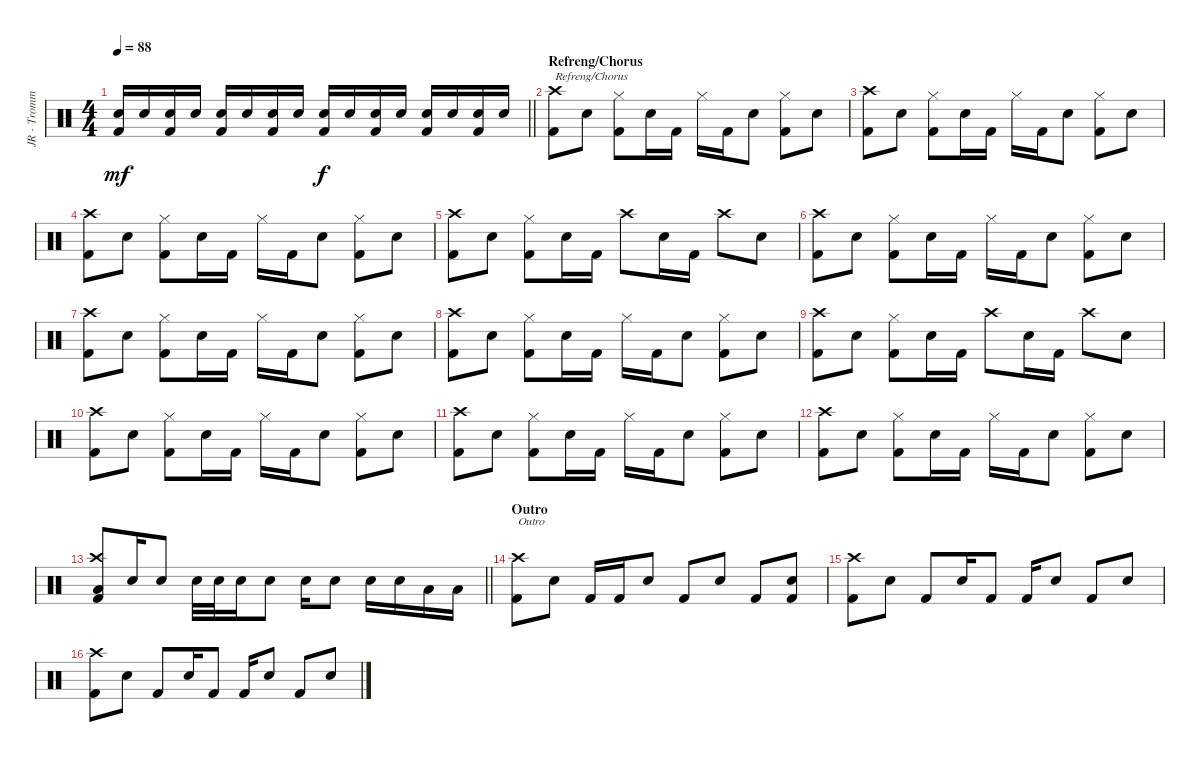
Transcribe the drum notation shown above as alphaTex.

\track ("JR - Trommesett" "JR - Tromm") {instrument percussion}
\staff {score}
\articulation defaults
\ts (4 4)
\tempo 88
\clef neutral
\barLineRight lightlight
\ks c
("Electric Snare (hit)" "Kick (hit) 2").16{dy mf} "Electric Snare (hit)".16 ("Electric Snare (hit)" "Kick (hit) 2").16 "Electric Snare (hit)".16 ("Electric Snare (hit)" "Kick (hit) 2").16 "Electric Snare (hit)".16 ("Electric Snare (hit)" "Kick (hit) 2").16 "Electric Snare (hit)".16 ("Electric Snare (hit)" "Kick (hit) 2").16{dy f} "Electric Snare (hit)".16 ("Electric Snare (hit)" "Kick (hit) 2").16 "Electric Snare (hit)".16 ("Electric Snare (hit)" "Kick (hit) 2").16 "Electric Snare (hit)".16 ("Electric Snare (hit)" "Kick (hit) 2").16 "Electric Snare (hit)".16 |
\section ("" "Refreng/Chorus")
("Crash high (hit)" "Kick (hit) 2").8{txt "Refreng/Chorus"} "Electric Snare (hit)".8 ("Hi-Hat (closed)" "Kick (hit) 2").8 "Electric Snare (hit)".16 "Kick (hit) 2".16 "Hi-Hat (closed)".16 "Kick (hit) 2".16 "Electric Snare (hit)".8 ("Hi-Hat (closed)" "Kick (hit) 2").8 "Electric Snare (hit)".8 |
("Crash high (hit)" "Kick (hit) 2").8 "Electric Snare (hit)".8 ("Hi-Hat (closed)" "Kick (hit) 2").8 "Electric Snare (hit)".16 "Kick (hit) 2".16 "Hi-Hat (closed)".16 "Kick (hit) 2".16 "Electric Snare (hit)".8 ("Hi-Hat (closed)" "Kick (hit) 2").8 "Electric Snare (hit)".8 |
("Crash high (hit)" "Kick (hit) 2").8 "Electric Snare (hit)".8 ("Hi-Hat (closed)" "Kick (hit) 2").8 "Electric Snare (hit)".16 "Kick (hit) 2".16 "Hi-Hat (closed)".16 "Kick (hit) 2".16 "Electric Snare (hit)".8 ("Hi-Hat (closed)" "Kick (hit) 2").8 "Electric Snare (hit)".8 |
("Crash high (hit)" "Kick (hit) 2").8 "Electric Snare (hit)".8 ("Hi-Hat (closed)" "Kick (hit) 2").8 "Electric Snare (hit)".16 "Kick (hit) 2".16 "Crash high (hit)".8 "Electric Snare (hit)".16 "Kick (hit) 2".16 "Crash high (hit)".8 "Electric Snare (hit)".8 |
("Crash high (hit)" "Kick (hit) 2").8 "Electric Snare (hit)".8 ("Hi-Hat (closed)" "Kick (hit) 2").8 "Electric Snare (hit)".16 "Kick (hit) 2".16 "Hi-Hat (closed)".16 "Kick (hit) 2".16 "Electric Snare (hit)".8 ("Hi-Hat (closed)" "Kick (hit) 2").8 "Electric Snare (hit)".8 |
("Crash high (hit)" "Kick (hit) 2").8 "Electric Snare (hit)".8 ("Hi-Hat (closed)" "Kick (hit) 2").8 "Electric Snare (hit)".16 "Kick (hit) 2".16 "Hi-Hat (closed)".16 "Kick (hit) 2".16 "Electric Snare (hit)".8 ("Hi-Hat (closed)" "Kick (hit) 2").8 "Electric Snare (hit)".8 |
("Crash high (hit)" "Kick (hit) 2").8 "Electric Snare (hit)".8 ("Hi-Hat (closed)" "Kick (hit) 2").8 "Electric Snare (hit)".16 "Kick (hit) 2".16 "Hi-Hat (closed)".16 "Kick (hit) 2".16 "Electric Snare (hit)".8 ("Hi-Hat (closed)" "Kick (hit) 2").8 "Electric Snare (hit)".8 |
("Crash high (hit)" "Kick (hit) 2").8 "Electric Snare (hit)".8 ("Hi-Hat (closed)" "Kick (hit) 2").8 "Electric Snare (hit)".16 "Kick (hit) 2".16 "Crash high (hit)".8 "Electric Snare (hit)".16 "Kick (hit) 2".16 "Crash high (hit)".8 "Electric Snare (hit)".8 |
("Crash high (hit)" "Kick (hit) 2").8 "Electric Snare (hit)".8 ("Hi-Hat (closed)" "Kick (hit) 2").8 "Electric Snare (hit)".16 "Kick (hit) 2".16 "Hi-Hat (closed)".16 "Kick (hit) 2".16 "Electric Snare (hit)".8 ("Hi-Hat (closed)" "Kick (hit) 2").8 "Electric Snare (hit)".8 |
("Crash high (hit)" "Kick (hit) 2").8 "Electric Snare (hit)".8 ("Hi-Hat (closed)" "Kick (hit) 2").8 "Electric Snare (hit)".16 "Kick (hit) 2".16 "Hi-Hat (closed)".16 "Kick (hit) 2".16 "Electric Snare (hit)".8 ("Hi-Hat (closed)" "Kick (hit) 2").8 "Electric Snare (hit)".8 |
("Crash high (hit)" "Kick (hit) 2").8 "Electric Snare (hit)".8 ("Hi-Hat (closed)" "Kick (hit) 2").8 "Electric Snare (hit)".16 "Kick (hit) 2".16 "Hi-Hat (closed)".16 "Kick (hit) 2".16 "Electric Snare (hit)".8 ("Hi-Hat (closed)" "Kick (hit) 2").8 "Electric Snare (hit)".8 |
\barLineRight lightlight
("Crash high (hit)" "Low Tom (hit)" "Kick (hit) 2").8 "Electric Snare (hit)".16 "Electric Snare (hit)".8 "Electric Snare (hit)".32 "Electric Snare (hit)".32 "Electric Snare (hit)".16 "Electric Snare (hit)".8 "Electric Snare (hit)".16 "Electric Snare (hit)".8 "Electric Snare (hit)".16 "Electric Snare (hit)".16 "Low Tom (hit)".16 "Low Tom (hit)".16 |
\section ("" "Outro")
("Crash high (hit)" "Kick (hit) 2").8{txt "Outro"} "Electric Snare (hit)".8 "Kick (hit) 2".16 "Kick (hit) 2".16 "Electric Snare (hit)".8 "Kick (hit) 2".8 "Electric Snare (hit)".8 "Kick (hit) 2".8 ("Electric Snare (hit)" "Kick (hit) 2").8 |
("Crash high (hit)" "Kick (hit) 2").8 "Electric Snare (hit)".8 "Kick (hit) 2".8 "Electric Snare (hit)".16 "Kick (hit) 2".8 "Kick (hit) 2".16 "Electric Snare (hit)".8 "Kick (hit) 2".8 "Electric Snare (hit)".8 |
("Crash high (hit)" "Kick (hit) 2").8 "Electric Snare (hit)".8 "Kick (hit) 2".8 "Electric Snare (hit)".16 "Kick (hit) 2".8 "Kick (hit) 2".16 "Electric Snare (hit)".8 "Kick (hit) 2".8 "Electric Snare (hit)".8
